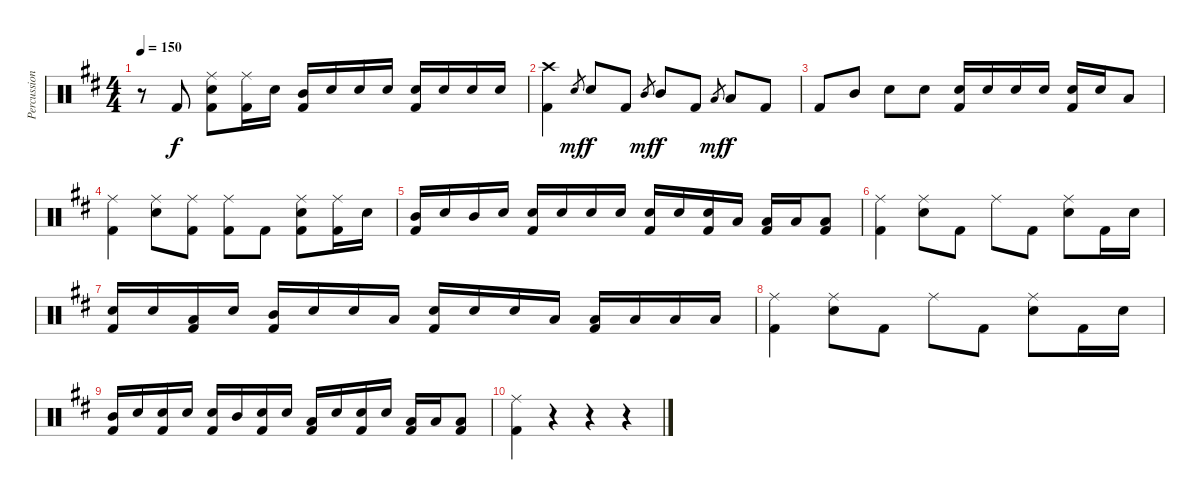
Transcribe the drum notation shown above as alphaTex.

\track ("Percussion" "Percussion") {instrument percussion}
\staff {score}
\articulation defaults
\ts (4 4)
\tempo 150
\clef neutral
\ks d
r.8{dy f} "Kick (hit) 2".8 ("Ride (middle)" "Snare (hit) 2" "Kick (hit) 2").8 ("Ride (middle)" "Kick (hit) 2").16 "Snare (hit) 2".16 ("Mid Tom (hit)" "Kick (hit) 2").16 "Snare (hit) 2".16 "Snare (hit) 2".16 "Snare (hit) 2".16 ("Snare (hit) 2" "Kick (hit) 2").16 "Snare (hit) 2".16 "Snare (hit) 2".16 "Snare (hit) 2".16 |
("Crash high (hit)" "Kick (hit) 2").4 "Snare (hit) 2".8{gr dy mf} "Snare (hit) 2".8{dy f} "Kick (hit) 2".8 "Mid Tom (hit)".8{gr dy mf} "Mid Tom (hit)".8{dy f} "Kick (hit) 2".8 "Low Tom (hit)".8{gr dy mf} "Low Tom (hit)".8{dy f} "Kick (hit) 2".8 |
"Kick (hit) 2".8 "Mid Tom (hit)".8 "Snare (hit) 2".8 "Snare (hit) 2".8 ("Snare (hit) 2" "Kick (hit) 2").16 "Snare (hit) 2".16 "Snare (hit) 2".16 "Snare (hit) 2".16 ("Snare (hit) 2" "Kick (hit) 2").16 "Snare (hit) 2".16 "Low Tom (hit)".8 |
("Ride (middle)" "Kick (hit) 2").4 ("Ride (middle)" "Snare (hit) 2").8 ("Ride (middle)" "Kick (hit) 2").8 ("Ride (middle)" "Kick (hit) 2").8 "Kick (hit) 2".8 ("Ride (middle)" "Snare (hit) 2" "Kick (hit) 2").8 ("Ride (middle)" "Kick (hit) 2").16 "Snare (hit) 2".16 |
("Mid Tom (hit)" "Kick (hit) 2").16 "Snare (hit) 2".16 "Mid Tom (hit)".16 "Snare (hit) 2".16 ("Snare (hit) 2" "Kick (hit) 2").16 "Snare (hit) 2".16 "Snare (hit) 2".16 "Snare (hit) 2".16 ("Snare (hit) 2" "Kick (hit) 2").16 "Snare (hit) 2".16 ("Snare (hit) 2" "Kick (hit) 2").16 "Low Tom (hit)".16 ("Low Floor Tom (hit)" "Kick (hit) 2").16 "Low Floor Tom (hit)".16 ("Low Floor Tom (hit)" "Kick (hit) 2").8 |
("Ride (middle)" "Kick (hit) 2").4 ("Ride (middle)" "Snare (hit) 2").8{volume 0} "Kick (hit) 2".8 "Ride (middle)".8 "Kick (hit) 2".8 ("Ride (middle)" "Snare (hit) 2").8 "Kick (hit) 2".16 "Snare (hit) 2".16 |
("Snare (hit) 2" "Kick (hit) 2").16 "Snare (hit) 2".16 ("Low Tom (hit)" "Kick (hit) 2").16 "Snare (hit) 2".16 ("Mid Tom (hit)" "Kick (hit) 2").16 "Snare (hit) 2".16 "Snare (hit) 2".16 "Low Tom (hit)".16 ("Snare (hit) 2" "Kick (hit) 2").16 "Snare (hit) 2".16 "Snare (hit) 2".16 "Low Tom (hit)".16 ("Low Tom (hit)" "Kick (hit) 2").16 "Low Floor Tom (hit)".16 "Low Floor Tom (hit)".16 "Low Floor Tom (hit)".16 |
("Ride (middle)" "Kick (hit) 2").4 ("Ride (middle)" "Snare (hit) 2").8 "Kick (hit) 2".8 "Ride (middle)".8 "Kick (hit) 2".8 ("Ride (middle)" "Snare (hit) 2").8 "Kick (hit) 2".16 "Snare (hit) 2".16 |
("Mid Tom (hit)" "Kick (hit) 2").16 "Snare (hit) 2".16 ("Snare (hit) 2" "Kick (hit) 2").16 "Snare (hit) 2".16 ("Snare (hit) 2" "Kick (hit) 2").16 "Mid Tom (hit)".16 ("Snare (hit) 2" "Kick (hit) 2").16 "Snare (hit) 2".16 ("Low Tom (hit)" "Kick (hit) 2").16 "Snare (hit) 2".16 ("Snare (hit) 2" "Kick (hit) 2").16 "Snare (hit) 2".16 ("Low Floor Tom (hit)" "Kick (hit) 2").16 "Low Floor Tom (hit)".16 ("Low Floor Tom (hit)" "Kick (hit) 2").8 |
("Ride (middle)" "Kick (hit) 2").4 r.4 r.4 r.4
